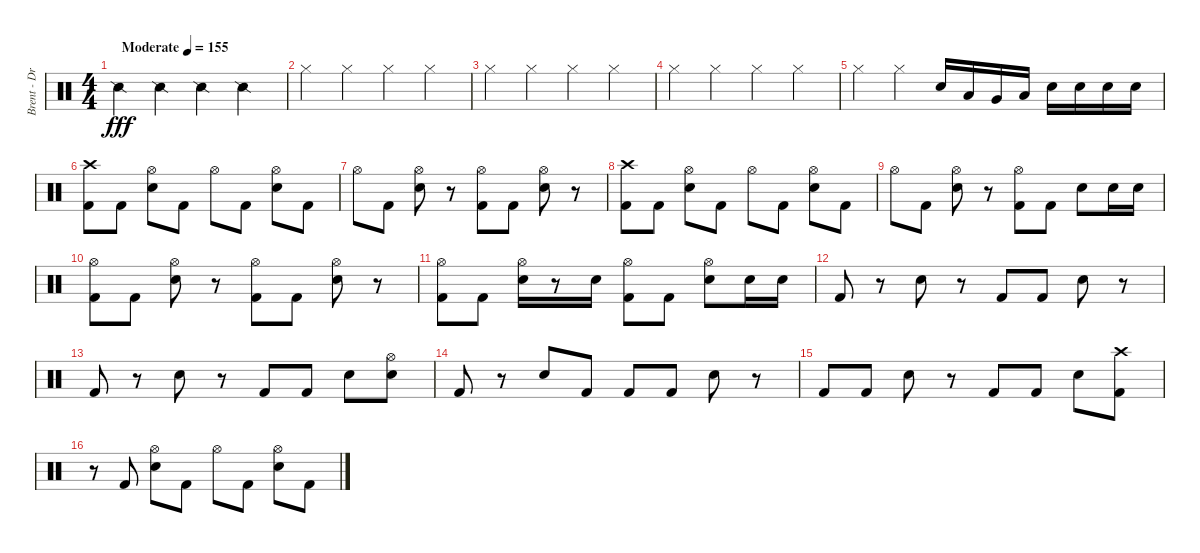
\track ("Brent - Drums" "Brent - Dr") {instrument percussion}
\staff {score}
\articulation defaults
\ts (4 4)
\tempo (155 "Moderate")
\clef neutral
\ks c "Snare (side stick) 2".4{dy fff} "Snare (side stick) 2".4 "Snare (side stick) 2".4 "Snare (side stick) 2".4
|
"Hi-Hat (closed)".4 "Hi-Hat (closed)".4 "Hi-Hat (closed)".4 "Hi-Hat (closed)".4 |
"Hi-Hat (closed)".4 "Hi-Hat (closed)".4 "Hi-Hat (closed)".4 "Hi-Hat (closed)".4 |
"Hi-Hat (closed)".4 "Hi-Hat (closed)".4 "Hi-Hat (closed)".4 "Hi-Hat (closed)".4 |
"Hi-Hat (closed)".4 "Hi-Hat (closed)".4 "Snare (hit) 2".16 "Low Tom (hit)".16 "Very Low Tom (hit)".16 "Low Floor Tom (hit)".16 "Snare (hit) 2".16 "Snare (hit) 2".16 "Snare (hit) 2".16 "Snare (hit) 2".16 |
("Crash high (hit)" "Kick (hit) 2").8 "Kick (hit) 2".8 ("Hi-Hat (open)" "Snare (hit) 2").8 "Kick (hit) 2".8 "Hi-Hat (open)".8 "Kick (hit) 2".8 ("Hi-Hat (open)" "Snare (hit) 2").8 "Kick (hit) 2".8 |
"Hi-Hat (open)".8 "Kick (hit) 2".8 ("Hi-Hat (open)" "Snare (hit) 2").8 r.8 ("Hi-Hat (open)" "Kick (hit) 2").8 "Kick (hit) 2".8 ("Hi-Hat (open)" "Snare (hit) 2").8 r.8 |
("Crash high (hit)" "Kick (hit) 2").8 "Kick (hit) 2".8 ("Hi-Hat (open)" "Snare (hit) 2").8 "Kick (hit) 2".8 "Hi-Hat (open)".8 "Kick (hit) 2".8 ("Hi-Hat (open)" "Snare (hit) 2").8 "Kick (hit) 2".8 |
"Hi-Hat (open)".8 "Kick (hit) 2".8 ("Hi-Hat (open)" "Snare (hit) 2").8 r.8 ("Hi-Hat (open)" "Kick (hit) 2").8 "Kick (hit) 2".8 "Snare (hit) 2".8 "Snare (hit) 2".16 "Snare (hit) 2".16 |
("Hi-Hat (open)" "Kick (hit) 2").8 "Kick (hit) 2".8 ("Hi-Hat (open)" "Snare (hit) 2").8 r.8 ("Hi-Hat (open)" "Kick (hit) 2").8 "Kick (hit) 2".8 ("Hi-Hat (open)" "Snare (hit) 2").8 r.8 |
("Hi-Hat (open)" "Kick (hit) 2").8 "Kick (hit) 2".8 ("Hi-Hat (open)" "Snare (hit) 2").16 r.8 "Snare (hit) 2".16 ("Hi-Hat (open)" "Kick (hit) 2").8 "Kick (hit) 2".8 ("Hi-Hat (open)" "Snare (hit) 2").8 "Snare (hit) 2".16 "Snare (hit) 2".16 |
"Kick (hit) 2".8 r.8 "Snare (hit) 2".8 r.8 "Kick (hit) 2".8 "Kick (hit) 2".8 "Snare (hit) 2".8 r.8 |
"Kick (hit) 2".8 r.8 "Snare (hit) 2".8 r.8 "Kick (hit) 2".8 "Kick (hit) 2".8 "Snare (hit) 2".8 ("Hi-Hat (open)" "Snare (hit) 2").8 |
"Kick (hit) 2".8 r.8 "Snare (hit) 2".8 "Kick (hit) 2".8 "Kick (hit) 2".8 "Kick (hit) 2".8 "Snare (hit) 2".8 r.8 |
"Kick (hit) 2".8 "Kick (hit) 2".8 "Snare (hit) 2".8 r.8 "Kick (hit) 2".8 "Kick (hit) 2".8 "Snare (hit) 2".8 ("Crash high (hit)" "Kick (hit) 2").8 |
r.8 "Kick (hit) 2".8 ("Hi-Hat (open)" "Snare (hit) 2").8 "Kick (hit) 2".8 "Hi-Hat (open)".8 "Kick (hit) 2".8 ("Hi-Hat (open)" "Snare (hit) 2").8 "Kick (hit) 2".8
